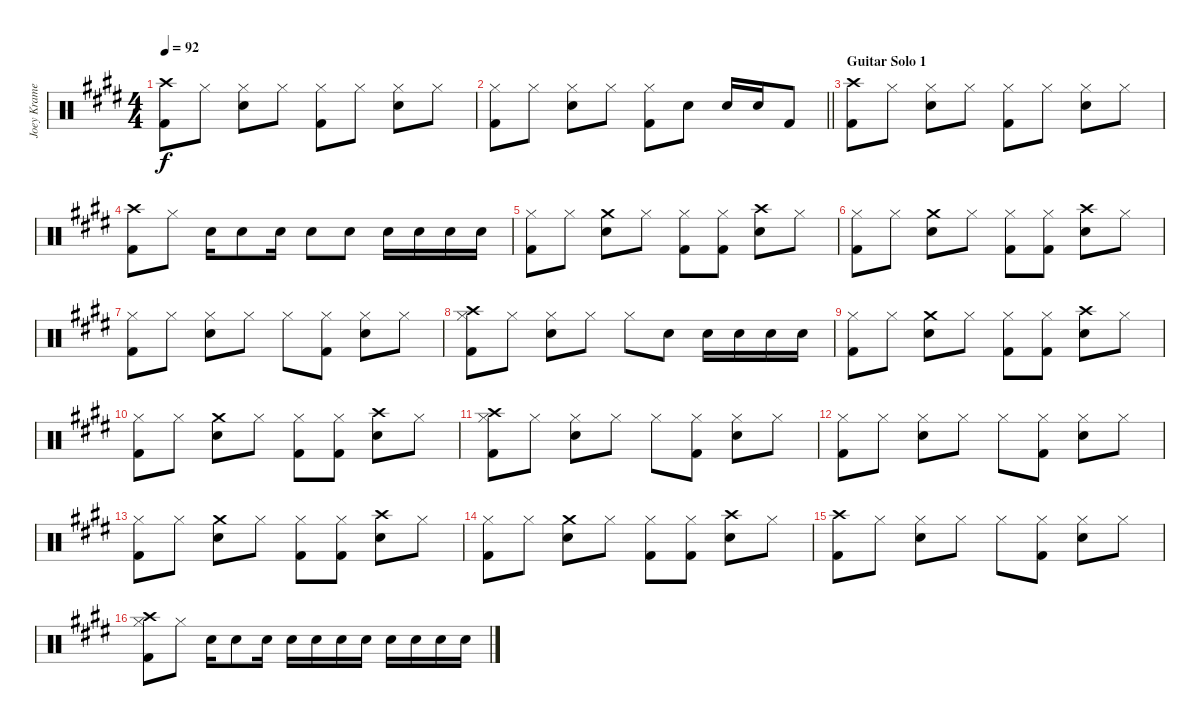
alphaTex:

\track ("Joey Kramer" "Joey Krame") {instrument percussion}
\staff {score}
\articulation defaults
\ts (4 4)
\tempo 92
\clef neutral
\ks e
("Crash high (hit)" "Kick (hit) 2").8{dy f} "Hi-Hat (closed)".8 ("Hi-Hat (closed)" "Electric Snare (hit)").8 "Hi-Hat (closed)".8 ("Hi-Hat (closed)" "Kick (hit) 2").8 "Hi-Hat (closed)".8 ("Hi-Hat (closed)" "Electric Snare (hit)").8 "Hi-Hat (closed)".8 |
\barLineRight lightlight
\ks c#minor
("Hi-Hat (closed)" "Kick (hit) 2").8 "Hi-Hat (closed)".8 ("Hi-Hat (closed)" "Electric Snare (hit)").8 "Hi-Hat (closed)".8 ("Hi-Hat (closed)" "Kick (hit) 2").8 "Electric Snare (hit)".8 "Electric Snare (hit)".16 "Electric Snare (hit)".16 "Kick (hit) 2".8 |
\section ("" "Guitar Solo 1")
("Crash high (hit)" "Kick (hit) 2").8 "Hi-Hat (closed)".8 ("Hi-Hat (closed)" "Electric Snare (hit)").8 "Hi-Hat (closed)".8 ("Hi-Hat (closed)" "Kick (hit) 2").8 "Hi-Hat (closed)".8 ("Hi-Hat (closed)" "Electric Snare (hit)").8 "Hi-Hat (closed)".8 |
("Crash high (hit)" "Kick (hit) 2").8 "Hi-Hat (closed)".8 "Electric Snare (hit)".16 "Electric Snare (hit)".8 "Electric Snare (hit)".16 "Electric Snare (hit)".8 "Electric Snare (hit)".8 "Electric Snare (hit)".16 "Electric Snare (hit)".16 "Electric Snare (hit)".16 "Electric Snare (hit)".16 |
("Hi-Hat (closed)" "Kick (hit) 2").8 "Hi-Hat (closed)".8 ("Crash medium (hit)" "Electric Snare (hit)").8 "Hi-Hat (closed)".8 ("Hi-Hat (closed)" "Kick (hit) 2").8 ("Hi-Hat (closed)" "Kick (hit) 2").8 ("Crash high (hit)" "Electric Snare (hit)").8 "Hi-Hat (closed)".8 |
\ks e
("Hi-Hat (closed)" "Kick (hit) 2").8 "Hi-Hat (closed)".8 ("Crash medium (hit)" "Electric Snare (hit)").8 "Hi-Hat (closed)".8 ("Hi-Hat (closed)" "Kick (hit) 2").8 ("Hi-Hat (closed)" "Kick (hit) 2").8 ("Crash high (hit)" "Electric Snare (hit)").8 "Hi-Hat (closed)".8 |
\ks c#minor
("Hi-Hat (closed)" "Kick (hit) 2").8 "Hi-Hat (closed)".8 ("Hi-Hat (closed)" "Electric Snare (hit)").8 "Hi-Hat (closed)".8 "Hi-Hat (closed)".8 ("Hi-Hat (closed)" "Kick (hit) 2").8 ("Hi-Hat (closed)" "Electric Snare (hit)").8 "Hi-Hat (closed)".8 |
("Crash high (hit)" "Hi-Hat (closed)" "Kick (hit) 2").8 "Hi-Hat (closed)".8 ("Hi-Hat (closed)" "Electric Snare (hit)").8 "Hi-Hat (closed)".8 "Hi-Hat (closed)".8 "Electric Snare (hit)".8 "Electric Snare (hit)".16 "Electric Snare (hit)".16 "Electric Snare (hit)".16 "Electric Snare (hit)".16 |
("Hi-Hat (closed)" "Kick (hit) 2").8 "Hi-Hat (closed)".8 ("Crash medium (hit)" "Electric Snare (hit)").8 "Hi-Hat (closed)".8 ("Hi-Hat (closed)" "Kick (hit) 2").8 ("Hi-Hat (closed)" "Kick (hit) 2").8 ("Crash high (hit)" "Electric Snare (hit)").8 "Hi-Hat (closed)".8 |
\ks e
("Hi-Hat (closed)" "Kick (hit) 2").8 "Hi-Hat (closed)".8 ("Crash medium (hit)" "Electric Snare (hit)").8 "Hi-Hat (closed)".8 ("Hi-Hat (closed)" "Kick (hit) 2").8 ("Hi-Hat (closed)" "Kick (hit) 2").8 ("Crash high (hit)" "Electric Snare (hit)").8 "Hi-Hat (closed)".8 |
\ks c#minor
("Crash high (hit)" "Hi-Hat (closed)" "Kick (hit) 2").8 "Hi-Hat (closed)".8 ("Hi-Hat (closed)" "Electric Snare (hit)").8 "Hi-Hat (closed)".8 "Hi-Hat (closed)".8 ("Hi-Hat (closed)" "Kick (hit) 2").8 ("Hi-Hat (closed)" "Electric Snare (hit)").8 "Hi-Hat (closed)".8 |
("Hi-Hat (closed)" "Kick (hit) 2").8 "Hi-Hat (closed)".8 ("Hi-Hat (closed)" "Electric Snare (hit)").8 "Hi-Hat (closed)".8 "Hi-Hat (closed)".8 ("Hi-Hat (closed)" "Kick (hit) 2").8 ("Hi-Hat (closed)" "Electric Snare (hit)").8 "Hi-Hat (closed)".8 |
("Hi-Hat (closed)" "Kick (hit) 2").8 "Hi-Hat (closed)".8 ("Crash medium (hit)" "Electric Snare (hit)").8 "Hi-Hat (closed)".8 ("Hi-Hat (closed)" "Kick (hit) 2").8 ("Hi-Hat (closed)" "Kick (hit) 2").8 ("Crash high (hit)" "Electric Snare (hit)").8 "Hi-Hat (closed)".8 |
\ks e
("Hi-Hat (closed)" "Kick (hit) 2").8 "Hi-Hat (closed)".8 ("Crash medium (hit)" "Electric Snare (hit)").8 "Hi-Hat (closed)".8 ("Hi-Hat (closed)" "Kick (hit) 2").8 ("Hi-Hat (closed)" "Kick (hit) 2").8 ("Crash high (hit)" "Electric Snare (hit)").8 "Hi-Hat (closed)".8 |
\ks c#minor
("Crash high (hit)" "Kick (hit) 2").8 "Hi-Hat (closed)".8 ("Hi-Hat (closed)" "Electric Snare (hit)").8 "Hi-Hat (closed)".8 "Hi-Hat (closed)".8 ("Hi-Hat (closed)" "Kick (hit) 2").8 ("Hi-Hat (closed)" "Electric Snare (hit)").8 "Hi-Hat (closed)".8 |
("Crash high (hit)" "Hi-Hat (closed)" "Kick (hit) 2").8 "Hi-Hat (closed)".8 "Electric Snare (hit)".16 "Electric Snare (hit)".8 "Electric Snare (hit)".16 "Electric Snare (hit)".16 "Electric Snare (hit)".16 "Electric Snare (hit)".16 "Electric Snare (hit)".16 "Electric Snare (hit)".16 "Electric Snare (hit)".16 "Electric Snare (hit)".16 "Electric Snare (hit)".16
